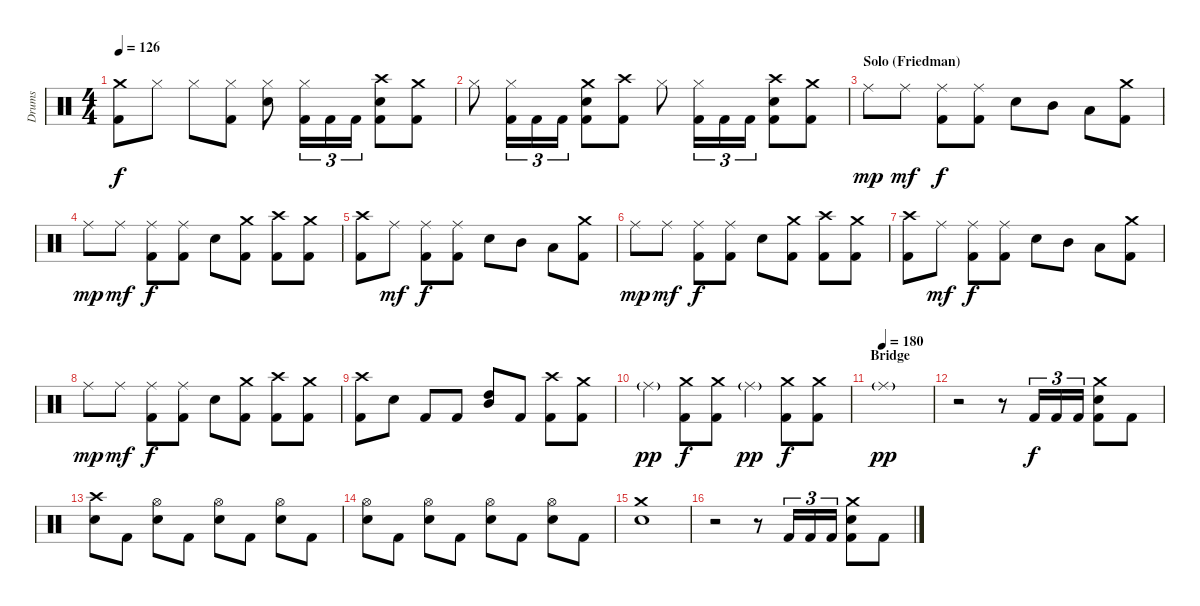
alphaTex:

\bracketExtendMode groupsimilarinstruments
\track ("Drumkit" "Drums") {solo instrument percussion}
\staff {score}
\articulation defaults
\ts (4 4)
\tempo 126
\clef neutral
\ks c
("Crash medium (hit)" "Kick (hit) 2").8{dy f} "Hi-Hat (closed)".8 "Hi-Hat (closed)".8 ("Hi-Hat (closed)" "Kick (hit) 2").8 ("Hi-Hat (closed)" "Snare (hit) 2").8 ("Hi-Hat (closed)" "Kick (hit) 2").16{tu (3 2)} "Kick (hit) 2".16{tu (3 2)} "Kick (hit) 2".16{tu (3 2)} ("Crash high (hit)" "Snare (hit) 2" "Kick (hit) 2").8 ("Crash medium (hit)" "Kick (hit) 2").8 |
"Hi-Hat (closed)".8 ("Hi-Hat (closed)" "Kick (hit) 2").16{tu (3 2)} "Kick (hit) 2".16{tu (3 2)} "Kick (hit) 2".16{tu (3 2)} ("Crash medium (hit)" "Snare (hit) 2" "Kick (hit) 2").8 ("Crash high (hit)" "Kick (hit) 2").8 "Hi-Hat (closed)".8 ("Hi-Hat (closed)" "Kick (hit) 2").16{tu (3 2)} "Kick (hit) 2".16{tu (3 2)} "Kick (hit) 2".16{tu (3 2)} ("Crash high (hit)" "Snare (hit) 2" "Kick (hit) 2").8 ("Crash medium (hit)" "Kick (hit) 2").8 |
\section ("" "Solo (Friedman)")
"Ride (middle)".8{dy mp} "Ride (middle)".8{dy mf} ("Ride (middle)" "Kick (hit) 2").8{dy f} ("Ride (middle)" "Kick (hit) 2").8 "Snare (hit) 2".8 "Mid Tom (hit)".8 "Low Tom (hit)".8 ("Crash medium (hit)" "Kick (hit) 2").8 |
"Ride (middle)".8{dy mp} "Ride (middle)".8{dy mf} ("Ride (middle)" "Kick (hit) 2").8{dy f} ("Ride (middle)" "Kick (hit) 2").8 "Snare (hit) 2".8 ("Crash medium (hit)" "Kick (hit) 2").8 ("Crash high (hit)" "Kick (hit) 2").8 ("Crash medium (hit)" "Kick (hit) 2").8 |
("Crash high (hit)" "Kick (hit) 2").8 "Ride (middle)".8{dy mf} ("Ride (middle)" "Kick (hit) 2").8{dy f} ("Ride (middle)" "Kick (hit) 2").8 "Snare (hit) 2".8 "Mid Tom (hit)".8 "Low Tom (hit)".8 ("Crash medium (hit)" "Kick (hit) 2").8 |
"Ride (middle)".8{dy mp} "Ride (middle)".8{dy mf} ("Ride (middle)" "Kick (hit) 2").8{dy f} ("Ride (middle)" "Kick (hit) 2").8 "Snare (hit) 2".8 ("Crash medium (hit)" "Kick (hit) 2").8 ("Crash high (hit)" "Kick (hit) 2").8 ("Crash medium (hit)" "Kick (hit) 2").8 |
("Crash high (hit)" "Kick (hit) 2").8 "Ride (middle)".8{dy mf} ("Ride (middle)" "Kick (hit) 2").8{dy f} ("Ride (middle)" "Kick (hit) 2").8 "Snare (hit) 2".8 "Mid Tom (hit)".8 "Low Tom (hit)".8 ("Crash medium (hit)" "Kick (hit) 2").8 |
"Ride (middle)".8{dy mp} "Ride (middle)".8{dy mf} ("Ride (middle)" "Kick (hit) 2").8{dy f} ("Ride (middle)" "Kick (hit) 2").8 "Snare (hit) 2".8 ("Crash medium (hit)" "Kick (hit) 2").8 ("Crash high (hit)" "Kick (hit) 2").8 ("Crash medium (hit)" "Kick (hit) 2").8 |
("Crash high (hit)" "Kick (hit) 2").8 "Snare (hit) 2".8 "Kick (hit) 2".8 "Kick (hit) 2".8 ("High Tom (hit)" "Mid Tom (hit)").8 "Kick (hit) 2".8 ("Crash high (hit)" "Kick (hit) 2").8 ("Crash medium (hit)" "Kick (hit) 2").8 |
"Ride (middle)"{g}.4{dy pp} ("Crash medium (hit)" "Kick (hit) 2").8{dy f} ("Crash medium (hit)" "Kick (hit) 2").8 "Ride (middle)"{g}.4{dy pp} ("Crash medium (hit)" "Kick (hit) 2").8{dy f} ("Crash medium (hit)" "Kick (hit) 2").8 |
\section ("" "Bridge")
\tempo (180)
"Ride (middle)"{g}.1{dy pp} |
r.2 r.8 "Kick (hit) 2".16{tu (3 2) dy f} "Kick (hit) 2".16{tu (3 2)} "Kick (hit) 2".16{tu (3 2)} ("Crash medium (hit)" "Snare (hit) 2" "Kick (hit) 2").8 "Kick (hit) 2".8 |
("Crash high (hit)" "Snare (hit) 2").8 "Kick (hit) 2".8 ("Hi-Hat (open)" "Snare (hit) 2").8 "Kick (hit) 2".8 ("Hi-Hat (open)" "Snare (hit) 2").8 "Kick (hit) 2".8 ("Hi-Hat (open)" "Snare (hit) 2").8 "Kick (hit) 2".8 |
("Hi-Hat (open)" "Snare (hit) 2").8 "Kick (hit) 2".8 ("Hi-Hat (open)" "Snare (hit) 2").8 "Kick (hit) 2".8 ("Hi-Hat (open)" "Snare (hit) 2").8 "Kick (hit) 2".8 ("Hi-Hat (open)" "Snare (hit) 2").8 "Kick (hit) 2".8 |
("Crash medium (hit)" "Snare (hit) 2").1 |
r.2 r.8 "Kick (hit) 2".16{tu (3 2)} "Kick (hit) 2".16{tu (3 2)} "Kick (hit) 2".16{tu (3 2)} ("Crash medium (hit)" "Snare (hit) 2" "Kick (hit) 2").8 "Kick (hit) 2".8
